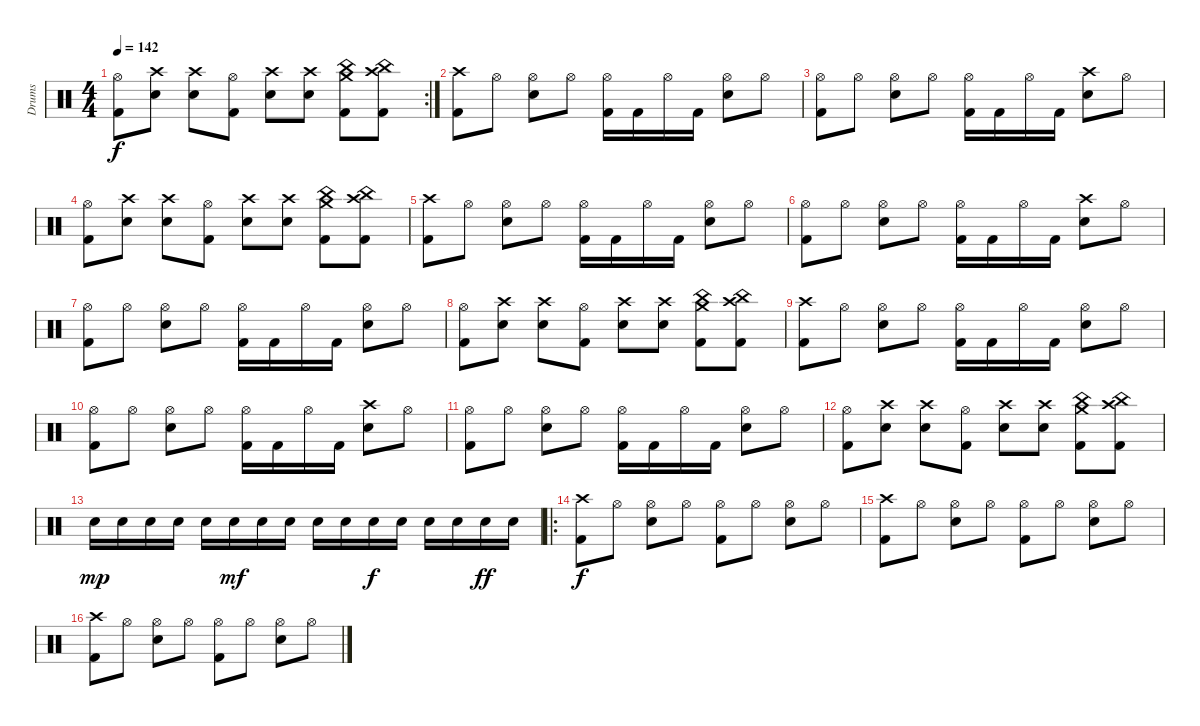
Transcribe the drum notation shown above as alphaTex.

\track ("Drums" "Drums") {instrument percussion}
\staff {score}
\articulation defaults
\rc 2
\ts (4 4)
\tempo 142
\clef neutral
\ks c
("Hi-Hat (open)" "Kick (hit) 2").8{dy f} ("Crash high (hit)" "Snare (hit) 2").8 ("Crash high (hit)" "Snare (hit) 2").8 ("Hi-Hat (open)" "Kick (hit) 2").8 ("Crash high (hit)" "Snare (hit) 2").8 ("Crash high (hit)" "Snare (hit) 2").8 ("China (hit)" "Crash medium (hit)" "Kick (hit) 2").8 ("China (hit)" "Crash high (hit)" "Kick (hit) 2").8 |
("Crash high (hit)" "Kick (hit) 2").8 "Hi-Hat (open)".8 ("Hi-Hat (open)" "Snare (hit) 2").8 "Hi-Hat (open)".8 ("Hi-Hat (open)" "Kick (hit) 2").16 "Kick (hit) 2".16 "Hi-Hat (open)".16 "Kick (hit) 2".16 ("Hi-Hat (open)" "Snare (hit) 2").8 "Hi-Hat (open)".8 |
("Hi-Hat (open)" "Kick (hit) 2").8 "Hi-Hat (open)".8 ("Hi-Hat (open)" "Snare (hit) 2").8 "Hi-Hat (open)".8 ("Hi-Hat (open)" "Kick (hit) 2").16 "Kick (hit) 2".16 "Hi-Hat (open)".16 "Kick (hit) 2".16 ("Crash high (hit)" "Snare (hit) 2").8 "Hi-Hat (open)".8 |
("Hi-Hat (open)" "Kick (hit) 2").8 ("Crash high (hit)" "Snare (hit) 2").8 ("Crash high (hit)" "Snare (hit) 2").8 ("Hi-Hat (open)" "Kick (hit) 2").8 ("Crash high (hit)" "Snare (hit) 2").8 ("Crash high (hit)" "Snare (hit) 2").8 ("China (hit)" "Crash medium (hit)" "Kick (hit) 2").8 ("China (hit)" "Crash high (hit)" "Kick (hit) 2").8 |
("Crash high (hit)" "Kick (hit) 2").8 "Hi-Hat (open)".8 ("Hi-Hat (open)" "Snare (hit) 2").8 "Hi-Hat (open)".8 ("Hi-Hat (open)" "Kick (hit) 2").16 "Kick (hit) 2".16 "Hi-Hat (open)".16 "Kick (hit) 2".16 ("Hi-Hat (open)" "Snare (hit) 2").8 "Hi-Hat (open)".8 |
("Hi-Hat (open)" "Kick (hit) 2").8 "Hi-Hat (open)".8 ("Hi-Hat (open)" "Snare (hit) 2").8 "Hi-Hat (open)".8 ("Hi-Hat (open)" "Kick (hit) 2").16 "Kick (hit) 2".16 "Hi-Hat (open)".16 "Kick (hit) 2".16 ("Crash high (hit)" "Snare (hit) 2").8 "Hi-Hat (open)".8 |
("Hi-Hat (open)" "Kick (hit) 2").8 "Hi-Hat (open)".8 ("Hi-Hat (open)" "Snare (hit) 2").8 "Hi-Hat (open)".8 ("Hi-Hat (open)" "Kick (hit) 2").16 "Kick (hit) 2".16 "Hi-Hat (open)".16 "Kick (hit) 2".16 ("Hi-Hat (open)" "Snare (hit) 2").8 "Hi-Hat (open)".8 |
("Hi-Hat (open)" "Kick (hit) 2").8 ("Crash high (hit)" "Snare (hit) 2").8 ("Crash high (hit)" "Snare (hit) 2").8 ("Hi-Hat (open)" "Kick (hit) 2").8 ("Crash high (hit)" "Snare (hit) 2").8 ("Crash high (hit)" "Snare (hit) 2").8 ("China (hit)" "Crash medium (hit)" "Kick (hit) 2").8 ("China (hit)" "Crash high (hit)" "Kick (hit) 2").8 |
("Crash high (hit)" "Kick (hit) 2").8 "Hi-Hat (open)".8 ("Hi-Hat (open)" "Snare (hit) 2").8 "Hi-Hat (open)".8 ("Hi-Hat (open)" "Kick (hit) 2").16 "Kick (hit) 2".16 "Hi-Hat (open)".16 "Kick (hit) 2".16 ("Hi-Hat (open)" "Snare (hit) 2").8 "Hi-Hat (open)".8 |
("Hi-Hat (open)" "Kick (hit) 2").8 "Hi-Hat (open)".8 ("Hi-Hat (open)" "Snare (hit) 2").8 "Hi-Hat (open)".8 ("Hi-Hat (open)" "Kick (hit) 2").16 "Kick (hit) 2".16 "Hi-Hat (open)".16 "Kick (hit) 2".16 ("Crash high (hit)" "Snare (hit) 2").8 "Hi-Hat (open)".8 |
("Hi-Hat (open)" "Kick (hit) 2").8 "Hi-Hat (open)".8 ("Hi-Hat (open)" "Snare (hit) 2").8 "Hi-Hat (open)".8 ("Hi-Hat (open)" "Kick (hit) 2").16 "Kick (hit) 2".16 "Hi-Hat (open)".16 "Kick (hit) 2".16 ("Hi-Hat (open)" "Snare (hit) 2").8 "Hi-Hat (open)".8 |
("Hi-Hat (open)" "Kick (hit) 2").8 ("Crash high (hit)" "Snare (hit) 2").8 ("Crash high (hit)" "Snare (hit) 2").8 ("Hi-Hat (open)" "Kick (hit) 2").8 ("Crash high (hit)" "Snare (hit) 2").8 ("Crash high (hit)" "Snare (hit) 2").8 ("China (hit)" "Crash medium (hit)" "Kick (hit) 2").8 ("China (hit)" "Crash high (hit)" "Kick (hit) 2").8 |
"Snare (hit) 2".16{dy mp} "Snare (hit) 2".16 "Snare (hit) 2".16 "Snare (hit) 2".16 "Snare (hit) 2".16 "Snare (hit) 2".16{dy mf} "Snare (hit) 2".16 "Snare (hit) 2".16 "Snare (hit) 2".16 "Snare (hit) 2".16 "Snare (hit) 2".16{dy f} "Snare (hit) 2".16 "Snare (hit) 2".16 "Snare (hit) 2".16 "Snare (hit) 2".16{dy ff} "Snare (hit) 2".16 |
\ro
("Crash high (hit)" "Kick (hit) 2").8{dy f} "Hi-Hat (open)".8 ("Hi-Hat (open)" "Snare (hit) 2").8 "Hi-Hat (open)".8 ("Hi-Hat (open)" "Kick (hit) 2").8 "Hi-Hat (open)".8 ("Hi-Hat (open)" "Snare (hit) 2").8 "Hi-Hat (open)".8 |
("Crash high (hit)" "Kick (hit) 2").8 "Hi-Hat (open)".8 ("Hi-Hat (open)" "Snare (hit) 2").8 "Hi-Hat (open)".8 ("Hi-Hat (open)" "Kick (hit) 2").8 "Hi-Hat (open)".8 ("Hi-Hat (open)" "Snare (hit) 2").8 "Hi-Hat (open)".8 |
("Crash high (hit)" "Kick (hit) 2").8 "Hi-Hat (open)".8 ("Hi-Hat (open)" "Snare (hit) 2").8 "Hi-Hat (open)".8 ("Hi-Hat (open)" "Kick (hit) 2").8 "Hi-Hat (open)".8 ("Hi-Hat (open)" "Snare (hit) 2").8 "Hi-Hat (open)".8
